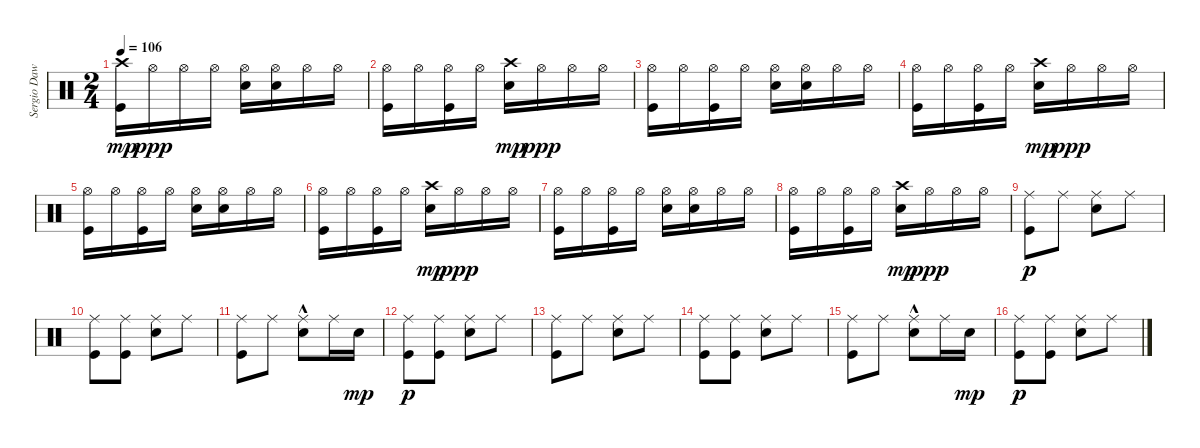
\track ("Sergio Dawi" "Sergio Daw") {instrument percussion}
\staff {score}
\articulation defaults
\ts (2 4)
\tempo 106
\clef neutral
\ks c
("Kick (hit)" "Crash high (hit)").16{dy mp} "Hi-Hat (open)".16{dy ppp} "Hi-Hat (open)".16 "Hi-Hat (open)".16 ("Electric Snare (hit)" "Hi-Hat (open)").16 ("Electric Snare (hit)" "Hi-Hat (open)").16 "Hi-Hat (open)".16 "Hi-Hat (open)".16 |
("Kick (hit)" "Hi-Hat (open)").16 "Hi-Hat (open)".16 ("Kick (hit)" "Hi-Hat (open)").16 "Hi-Hat (open)".16 ("Electric Snare (hit)" "Crash high (hit)").16{dy mp} "Hi-Hat (open)".16{dy ppp} "Hi-Hat (open)".16 "Hi-Hat (open)".16 |
("Kick (hit)" "Hi-Hat (open)").16 "Hi-Hat (open)".16 ("Kick (hit)" "Hi-Hat (open)").16 "Hi-Hat (open)".16 ("Electric Snare (hit)" "Hi-Hat (open)").16 ("Electric Snare (hit)" "Hi-Hat (open)").16 "Hi-Hat (open)".16 "Hi-Hat (open)".16 |
("Kick (hit)" "Hi-Hat (open)").16 "Hi-Hat (open)".16 ("Kick (hit)" "Hi-Hat (open)").16 "Hi-Hat (open)".16 ("Electric Snare (hit)" "Crash high (hit)").16{dy mp} "Hi-Hat (open)".16{dy ppp} "Hi-Hat (open)".16 "Hi-Hat (open)".16 |
("Kick (hit)" "Hi-Hat (open)").16 "Hi-Hat (open)".16 ("Kick (hit)" "Hi-Hat (open)").16 "Hi-Hat (open)".16 ("Electric Snare (hit)" "Hi-Hat (open)").16 ("Electric Snare (hit)" "Hi-Hat (open)").16 "Hi-Hat (open)".16 "Hi-Hat (open)".16 |
("Kick (hit)" "Hi-Hat (open)").16 "Hi-Hat (open)".16 ("Kick (hit)" "Hi-Hat (open)").16 "Hi-Hat (open)".16 ("Electric Snare (hit)" "Crash high (hit)").16{dy mp} "Hi-Hat (open)".16{dy ppp} "Hi-Hat (open)".16 "Hi-Hat (open)".16 |
("Kick (hit)" "Hi-Hat (open)").16 "Hi-Hat (open)".16 ("Kick (hit)" "Hi-Hat (open)").16 "Hi-Hat (open)".16 ("Electric Snare (hit)" "Hi-Hat (open)").16 ("Electric Snare (hit)" "Hi-Hat (open)").16 "Hi-Hat (open)".16 "Hi-Hat (open)".16 |
("Kick (hit)" "Hi-Hat (open)").16 "Hi-Hat (open)".16 ("Kick (hit)" "Hi-Hat (open)").16 "Hi-Hat (open)".16 ("Electric Snare (hit)" "Crash high (hit)").16{dy mp} "Hi-Hat (open)".16{dy ppp} "Hi-Hat (open)".16 "Hi-Hat (open)".16 |
("Kick (hit)" "Ride (middle)").8{dy p} "Ride (middle)".8 ("Electric Snare (hit)" "Ride (middle)").8 "Ride (middle)".8 |
("Kick (hit)" "Ride (middle)").8 ("Kick (hit)" "Ride (middle)").8 ("Electric Snare (hit)" "Ride (middle)").8 "Ride (middle)".8 |
("Kick (hit)" "Ride (middle)").8 "Ride (middle)".8 ("Electric Snare (hit)"{hac} "Ride (middle)").8 "Ride (middle)".16 "Electric Snare (hit)".16{dy mp} |
("Kick (hit)" "Ride (middle)").8{dy p} ("Kick (hit)" "Ride (middle)").8 ("Electric Snare (hit)" "Ride (middle)").8 "Ride (middle)".8 |
("Kick (hit)" "Ride (middle)").8 "Ride (middle)".8 ("Electric Snare (hit)" "Ride (middle)").8 "Ride (middle)".8 |
("Kick (hit)" "Ride (middle)").8 ("Kick (hit)" "Ride (middle)").8 ("Electric Snare (hit)" "Ride (middle)").8 "Ride (middle)".8 |
("Kick (hit)" "Ride (middle)").8 "Ride (middle)".8 ("Electric Snare (hit)"{hac} "Ride (middle)").8 "Ride (middle)".16 "Electric Snare (hit)".16{dy mp} |
("Kick (hit)" "Ride (middle)").8{dy p} ("Kick (hit)" "Ride (middle)").8 ("Electric Snare (hit)" "Ride (middle)").8 "Ride (middle)".8
